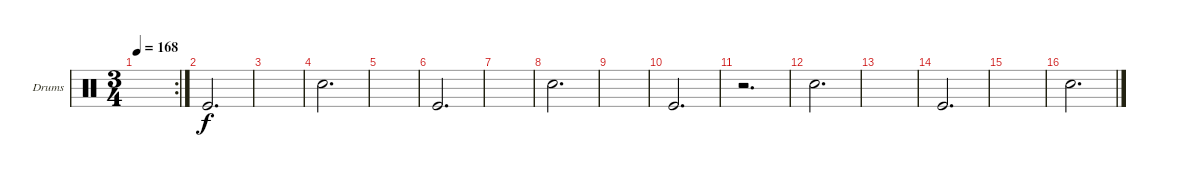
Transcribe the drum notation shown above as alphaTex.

\defaultSystemsLayout 4
\bracketExtendMode groupsimilarinstruments
\firstSystemTrackNameOrientation horizontal
\otherSystemsTrackNameOrientation horizontal
\track ("Drumkit" "Drums") {instrument percussion}
\staff {score}
\articulation defaults
\rc 2
\ts (3 4)
\tempo 168
\clef neutral
\ks c
|
"Kick (hit)".2{d} |
|
"Snare (hit) 2".2{d} |
|
"Kick (hit)".2{d} |
|
"Snare (hit) 2".2{d} |
|
"Kick (hit)".2{d} |
r.2{d} |
"Snare (hit) 2".2{d} |
|
"Kick (hit)".2{d} |
|
"Snare (hit) 2".2{d}
